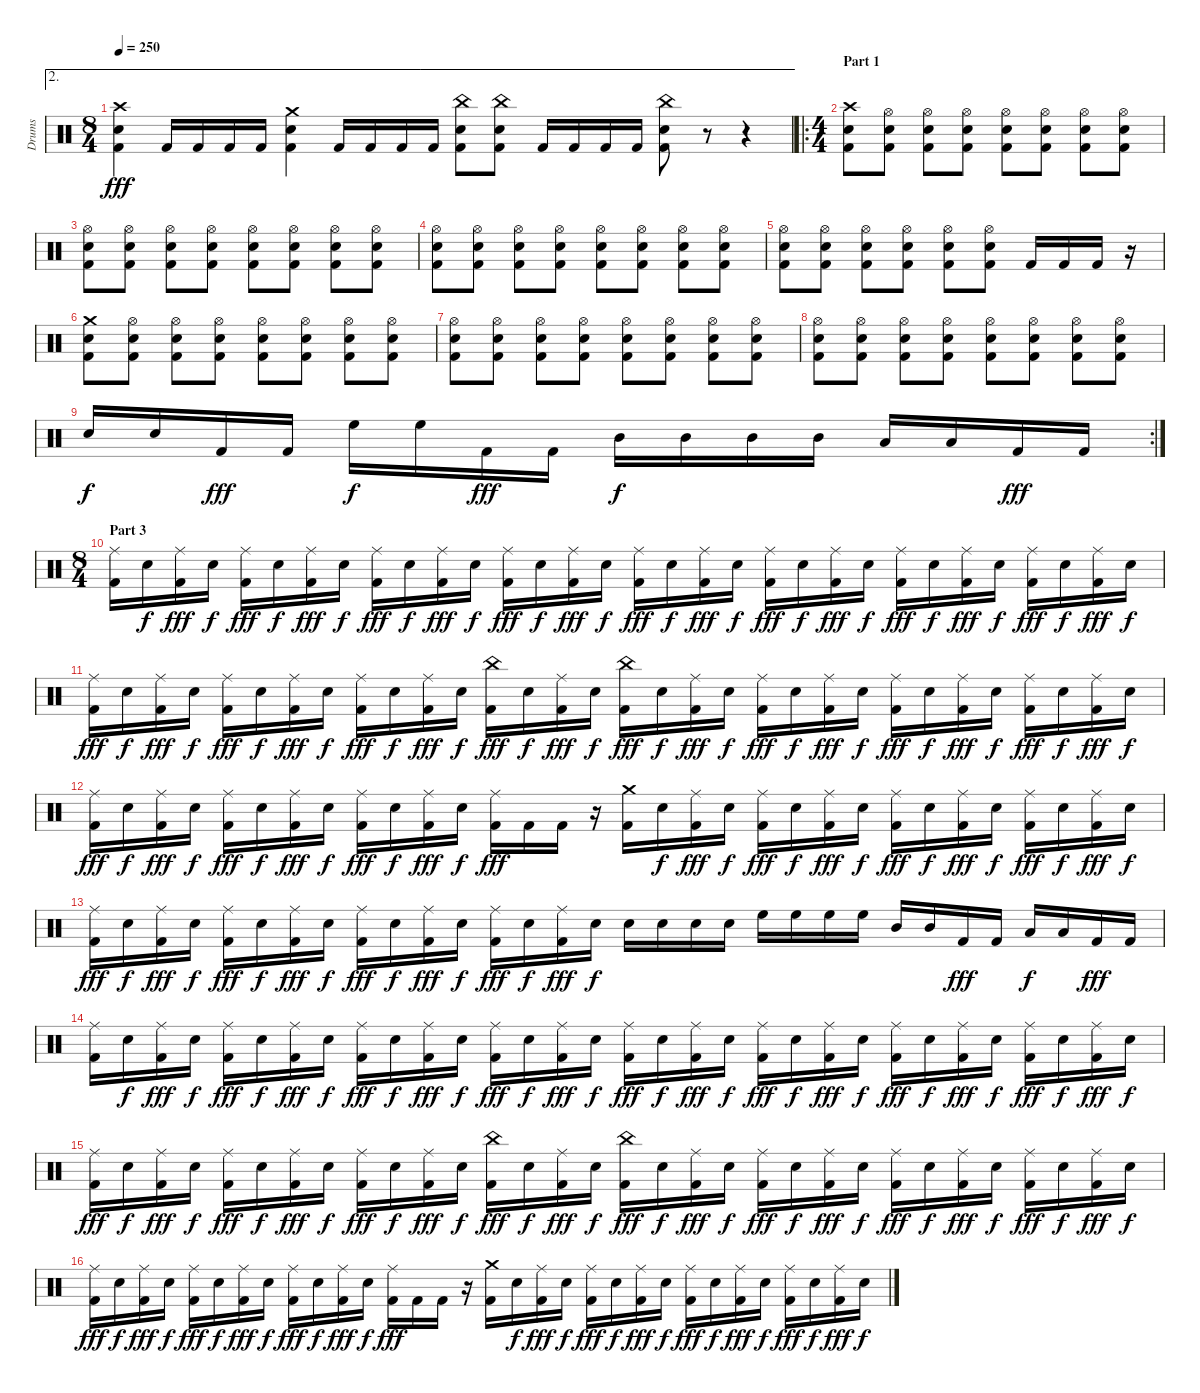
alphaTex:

\track ("Drums" "Drums") {instrument percussion}
\staff {score}
\articulation defaults
\ae 2
\ts (8 4)
\tempo 250
\clef neutral
\ks c
("Crash high (hit)" "Electric Snare (hit)" "Kick (hit) 2").4{dy fff} "Kick (hit) 2".16 "Kick (hit) 2".16 "Kick (hit) 2".16 "Kick (hit) 2".16 ("Crash medium (hit)" "Electric Snare (hit)" "Kick (hit) 2").4 "Kick (hit) 2".16 "Kick (hit) 2".16 "Kick (hit) 2".16 "Kick (hit) 2".16 ("China (hit)" "Electric Snare (hit)" "Kick (hit) 2").8 ("China (hit)" "Electric Snare (hit)" "Kick (hit) 2").8 "Kick (hit) 2".16 "Kick (hit) 2".16 "Kick (hit) 2".16 "Kick (hit) 2".16 ("China (hit)" "Electric Snare (hit)" "Kick (hit) 2").8 r.8 r.4 |
\ro
\ts (4 4)
\section ("" "Part 1")
("Crash high (hit)" "Electric Snare (hit)" "Kick (hit) 2").8 ("Hi-Hat (open)" "Electric Snare (hit)" "Kick (hit) 2").8 ("Hi-Hat (open)" "Electric Snare (hit)" "Kick (hit) 2").8 ("Hi-Hat (open)" "Electric Snare (hit)" "Kick (hit) 2").8 ("Hi-Hat (open)" "Electric Snare (hit)" "Kick (hit) 2").8 ("Hi-Hat (open)" "Electric Snare (hit)" "Kick (hit) 2").8 ("Hi-Hat (open)" "Electric Snare (hit)" "Kick (hit) 2").8 ("Hi-Hat (open)" "Electric Snare (hit)" "Kick (hit) 2").8 |
("Hi-Hat (open)" "Electric Snare (hit)" "Kick (hit) 2").8 ("Hi-Hat (open)" "Electric Snare (hit)" "Kick (hit) 2").8 ("Hi-Hat (open)" "Electric Snare (hit)" "Kick (hit) 2").8 ("Hi-Hat (open)" "Electric Snare (hit)" "Kick (hit) 2").8 ("Hi-Hat (open)" "Electric Snare (hit)" "Kick (hit) 2").8 ("Hi-Hat (open)" "Electric Snare (hit)" "Kick (hit) 2").8 ("Hi-Hat (open)" "Electric Snare (hit)" "Kick (hit) 2").8 ("Hi-Hat (open)" "Electric Snare (hit)" "Kick (hit) 2").8 |
("Hi-Hat (open)" "Electric Snare (hit)" "Kick (hit) 2").8 ("Hi-Hat (open)" "Electric Snare (hit)" "Kick (hit) 2").8 ("Hi-Hat (open)" "Electric Snare (hit)" "Kick (hit) 2").8 ("Hi-Hat (open)" "Electric Snare (hit)" "Kick (hit) 2").8 ("Hi-Hat (open)" "Electric Snare (hit)" "Kick (hit) 2").8 ("Hi-Hat (open)" "Electric Snare (hit)" "Kick (hit) 2").8 ("Hi-Hat (open)" "Electric Snare (hit)" "Kick (hit) 2").8 ("Hi-Hat (open)" "Electric Snare (hit)" "Kick (hit) 2").8 |
("Hi-Hat (open)" "Electric Snare (hit)" "Kick (hit) 2").8 ("Hi-Hat (open)" "Electric Snare (hit)" "Kick (hit) 2").8 ("Hi-Hat (open)" "Electric Snare (hit)" "Kick (hit) 2").8 ("Hi-Hat (open)" "Electric Snare (hit)" "Kick (hit) 2").8 ("Hi-Hat (open)" "Electric Snare (hit)" "Kick (hit) 2").8 ("Hi-Hat (open)" "Electric Snare (hit)" "Kick (hit) 2").8 "Kick (hit) 2".16 "Kick (hit) 2".16 "Kick (hit) 2".16 r.16 |
("Crash medium (hit)" "Electric Snare (hit)" "Kick (hit) 2").8 ("Hi-Hat (open)" "Electric Snare (hit)" "Kick (hit) 2").8 ("Hi-Hat (open)" "Electric Snare (hit)" "Kick (hit) 2").8 ("Hi-Hat (open)" "Electric Snare (hit)" "Kick (hit) 2").8 ("Hi-Hat (open)" "Electric Snare (hit)" "Kick (hit) 2").8 ("Hi-Hat (open)" "Electric Snare (hit)" "Kick (hit) 2").8 ("Hi-Hat (open)" "Electric Snare (hit)" "Kick (hit) 2").8 ("Hi-Hat (open)" "Electric Snare (hit)" "Kick (hit) 2").8 |
("Hi-Hat (open)" "Electric Snare (hit)" "Kick (hit) 2").8 ("Hi-Hat (open)" "Electric Snare (hit)" "Kick (hit) 2").8 ("Hi-Hat (open)" "Electric Snare (hit)" "Kick (hit) 2").8 ("Hi-Hat (open)" "Electric Snare (hit)" "Kick (hit) 2").8 ("Hi-Hat (open)" "Electric Snare (hit)" "Kick (hit) 2").8 ("Hi-Hat (open)" "Electric Snare (hit)" "Kick (hit) 2").8 ("Hi-Hat (open)" "Electric Snare (hit)" "Kick (hit) 2").8 ("Hi-Hat (open)" "Electric Snare (hit)" "Kick (hit) 2").8 |
("Hi-Hat (open)" "Electric Snare (hit)" "Kick (hit) 2").8 ("Hi-Hat (open)" "Electric Snare (hit)" "Kick (hit) 2").8 ("Hi-Hat (open)" "Electric Snare (hit)" "Kick (hit) 2").8 ("Hi-Hat (open)" "Electric Snare (hit)" "Kick (hit) 2").8 ("Hi-Hat (open)" "Electric Snare (hit)" "Kick (hit) 2").8 ("Hi-Hat (open)" "Electric Snare (hit)" "Kick (hit) 2").8 ("Hi-Hat (open)" "Electric Snare (hit)" "Kick (hit) 2").8 ("Hi-Hat (open)" "Electric Snare (hit)" "Kick (hit) 2").8 |
\rc 2 "Electric Snare (hit)".16{dy f} "Electric Snare (hit)".16 "Kick (hit) 2".16{dy fff} "Kick (hit) 2".16 "High Floor Tom (hit)".16{dy f} "High Floor Tom (hit)".16 "Kick (hit) 2".16{dy fff} "Kick (hit) 2".16 "Mid Tom (hit)".16{dy f} "Mid Tom (hit)".16 "Mid Tom (hit)".16 "Mid Tom (hit)".16 "Low Tom (hit)".16 "Low Tom (hit)".16 "Kick (hit) 2".16{dy fff} "Kick (hit) 2".16
|
\ts (8 4)
\section ("" "Part 3")
("Ride (middle)" "Kick (hit) 2").16 "Electric Snare (hit)".16{dy f} ("Ride (middle)" "Kick (hit) 2").16{dy fff} "Electric Snare (hit)".16{dy f} ("Ride (middle)" "Kick (hit) 2").16{dy fff} "Electric Snare (hit)".16{dy f} ("Ride (middle)" "Kick (hit) 2").16{dy fff} "Electric Snare (hit)".16{dy f} ("Ride (middle)" "Kick (hit) 2").16{dy fff} "Electric Snare (hit)".16{dy f} ("Ride (middle)" "Kick (hit) 2").16{dy fff} "Electric Snare (hit)".16{dy f} ("Ride (middle)" "Kick (hit) 2").16{dy fff} "Electric Snare (hit)".16{dy f} ("Ride (middle)" "Kick (hit) 2").16{dy fff} "Electric Snare (hit)".16{dy f} ("Ride (middle)" "Kick (hit) 2").16{dy fff} "Electric Snare (hit)".16{dy f} ("Ride (middle)" "Kick (hit) 2").16{dy fff} "Electric Snare (hit)".16{dy f} ("Ride (middle)" "Kick (hit) 2").16{dy fff} "Electric Snare (hit)".16{dy f} ("Ride (middle)" "Kick (hit) 2").16{dy fff} "Electric Snare (hit)".16{dy f} ("Ride (middle)" "Kick (hit) 2").16{dy fff} "Electric Snare (hit)".16{dy f} ("Ride (middle)" "Kick (hit) 2").16{dy fff} "Electric Snare (hit)".16{dy f} ("Ride (middle)" "Kick (hit) 2").16{dy fff} "Electric Snare (hit)".16{dy f} ("Ride (middle)" "Kick (hit) 2").16{dy fff} "Electric Snare (hit)".16{dy f} |
("Ride (middle)" "Kick (hit) 2").16{dy fff} "Electric Snare (hit)".16{dy f} ("Ride (middle)" "Kick (hit) 2").16{dy fff} "Electric Snare (hit)".16{dy f} ("Ride (middle)" "Kick (hit) 2").16{dy fff} "Electric Snare (hit)".16{dy f} ("Ride (middle)" "Kick (hit) 2").16{dy fff} "Electric Snare (hit)".16{dy f} ("Ride (middle)" "Kick (hit) 2").16{dy fff} "Electric Snare (hit)".16{dy f} ("Ride (middle)" "Kick (hit) 2").16{dy fff} "Electric Snare (hit)".16{dy f} ("China (hit)" "Kick (hit) 2").16{dy fff} "Electric Snare (hit)".16{dy f} ("Ride (middle)" "Kick (hit) 2").16{dy fff} "Electric Snare (hit)".16{dy f} ("China (hit)" "Kick (hit) 2").16{dy fff} "Electric Snare (hit)".16{dy f} ("Ride (middle)" "Kick (hit) 2").16{dy fff} "Electric Snare (hit)".16{dy f} ("Ride (middle)" "Kick (hit) 2").16{dy fff} "Electric Snare (hit)".16{dy f} ("Ride (middle)" "Kick (hit) 2").16{dy fff} "Electric Snare (hit)".16{dy f} ("Ride (middle)" "Kick (hit) 2").16{dy fff} "Electric Snare (hit)".16{dy f} ("Ride (middle)" "Kick (hit) 2").16{dy fff} "Electric Snare (hit)".16{dy f} ("Ride (middle)" "Kick (hit) 2").16{dy fff} "Electric Snare (hit)".16{dy f} ("Ride (middle)" "Kick (hit) 2").16{dy fff} "Electric Snare (hit)".16{dy f} |
("Ride (middle)" "Kick (hit) 2").16{dy fff} "Electric Snare (hit)".16{dy f} ("Ride (middle)" "Kick (hit) 2").16{dy fff} "Electric Snare (hit)".16{dy f} ("Ride (middle)" "Kick (hit) 2").16{dy fff} "Electric Snare (hit)".16{dy f} ("Ride (middle)" "Kick (hit) 2").16{dy fff} "Electric Snare (hit)".16{dy f} ("Ride (middle)" "Kick (hit) 2").16{dy fff} "Electric Snare (hit)".16{dy f} ("Ride (middle)" "Kick (hit) 2").16{dy fff} "Electric Snare (hit)".16{dy f} ("Ride (middle)" "Kick (hit) 2").16{dy fff} "Kick (hit) 2".16 "Kick (hit) 2".16 r.16 ("Crash medium (hit)" "Kick (hit) 2").16 "Electric Snare (hit)".16{dy f} ("Ride (middle)" "Kick (hit) 2").16{dy fff} "Electric Snare (hit)".16{dy f} ("Ride (middle)" "Kick (hit) 2").16{dy fff} "Electric Snare (hit)".16{dy f} ("Ride (middle)" "Kick (hit) 2").16{dy fff} "Electric Snare (hit)".16{dy f} ("Ride (middle)" "Kick (hit) 2").16{dy fff} "Electric Snare (hit)".16{dy f} ("Ride (middle)" "Kick (hit) 2").16{dy fff} "Electric Snare (hit)".16{dy f} ("Ride (middle)" "Kick (hit) 2").16{dy fff} "Electric Snare (hit)".16{dy f} ("Ride (middle)" "Kick (hit) 2").16{dy fff} "Electric Snare (hit)".16{dy f} |
("Ride (middle)" "Kick (hit) 2").16{dy fff} "Electric Snare (hit)".16{dy f} ("Ride (middle)" "Kick (hit) 2").16{dy fff} "Electric Snare (hit)".16{dy f} ("Ride (middle)" "Kick (hit) 2").16{dy fff} "Electric Snare (hit)".16{dy f} ("Ride (middle)" "Kick (hit) 2").16{dy fff} "Electric Snare (hit)".16{dy f} ("Ride (middle)" "Kick (hit) 2").16{dy fff} "Electric Snare (hit)".16{dy f} ("Ride (middle)" "Kick (hit) 2").16{dy fff} "Electric Snare (hit)".16{dy f} ("Ride (middle)" "Kick (hit) 2").16{dy fff} "Electric Snare (hit)".16{dy f} ("Ride (middle)" "Kick (hit) 2").16{dy fff} "Electric Snare (hit)".16{dy f} "Electric Snare (hit)".16 "Electric Snare (hit)".16 "Electric Snare (hit)".16 "Electric Snare (hit)".16 "High Floor Tom (hit)".16 "High Floor Tom (hit)".16 "High Floor Tom (hit)".16 "High Floor Tom (hit)".16 "Mid Tom (hit)".16 "Mid Tom (hit)".16 "Kick (hit) 2".16{dy fff} "Kick (hit) 2".16 "Low Tom (hit)".16{dy f} "Low Tom (hit)".16 "Kick (hit) 2".16{dy fff} "Kick (hit) 2".16 |
("Ride (middle)" "Kick (hit) 2").16 "Electric Snare (hit)".16{dy f} ("Ride (middle)" "Kick (hit) 2").16{dy fff} "Electric Snare (hit)".16{dy f} ("Ride (middle)" "Kick (hit) 2").16{dy fff} "Electric Snare (hit)".16{dy f} ("Ride (middle)" "Kick (hit) 2").16{dy fff} "Electric Snare (hit)".16{dy f} ("Ride (middle)" "Kick (hit) 2").16{dy fff} "Electric Snare (hit)".16{dy f} ("Ride (middle)" "Kick (hit) 2").16{dy fff} "Electric Snare (hit)".16{dy f} ("Ride (middle)" "Kick (hit) 2").16{dy fff} "Electric Snare (hit)".16{dy f} ("Ride (middle)" "Kick (hit) 2").16{dy fff} "Electric Snare (hit)".16{dy f} ("Ride (middle)" "Kick (hit) 2").16{dy fff} "Electric Snare (hit)".16{dy f} ("Ride (middle)" "Kick (hit) 2").16{dy fff} "Electric Snare (hit)".16{dy f} ("Ride (middle)" "Kick (hit) 2").16{dy fff} "Electric Snare (hit)".16{dy f} ("Ride (middle)" "Kick (hit) 2").16{dy fff} "Electric Snare (hit)".16{dy f} ("Ride (middle)" "Kick (hit) 2").16{dy fff} "Electric Snare (hit)".16{dy f} ("Ride (middle)" "Kick (hit) 2").16{dy fff} "Electric Snare (hit)".16{dy f} ("Ride (middle)" "Kick (hit) 2").16{dy fff} "Electric Snare (hit)".16{dy f} ("Ride (middle)" "Kick (hit) 2").16{dy fff} "Electric Snare (hit)".16{dy f} |
("Ride (middle)" "Kick (hit) 2").16{dy fff} "Electric Snare (hit)".16{dy f} ("Ride (middle)" "Kick (hit) 2").16{dy fff} "Electric Snare (hit)".16{dy f} ("Ride (middle)" "Kick (hit) 2").16{dy fff} "Electric Snare (hit)".16{dy f} ("Ride (middle)" "Kick (hit) 2").16{dy fff} "Electric Snare (hit)".16{dy f} ("Ride (middle)" "Kick (hit) 2").16{dy fff} "Electric Snare (hit)".16{dy f} ("Ride (middle)" "Kick (hit) 2").16{dy fff} "Electric Snare (hit)".16{dy f} ("China (hit)" "Kick (hit) 2").16{dy fff} "Electric Snare (hit)".16{dy f} ("Ride (middle)" "Kick (hit) 2").16{dy fff} "Electric Snare (hit)".16{dy f} ("China (hit)" "Kick (hit) 2").16{dy fff} "Electric Snare (hit)".16{dy f} ("Ride (middle)" "Kick (hit) 2").16{dy fff} "Electric Snare (hit)".16{dy f} ("Ride (middle)" "Kick (hit) 2").16{dy fff} "Electric Snare (hit)".16{dy f} ("Ride (middle)" "Kick (hit) 2").16{dy fff} "Electric Snare (hit)".16{dy f} ("Ride (middle)" "Kick (hit) 2").16{dy fff} "Electric Snare (hit)".16{dy f} ("Ride (middle)" "Kick (hit) 2").16{dy fff} "Electric Snare (hit)".16{dy f} ("Ride (middle)" "Kick (hit) 2").16{dy fff} "Electric Snare (hit)".16{dy f} ("Ride (middle)" "Kick (hit) 2").16{dy fff} "Electric Snare (hit)".16{dy f} |
("Ride (middle)" "Kick (hit) 2").16{dy fff} "Electric Snare (hit)".16{dy f} ("Ride (middle)" "Kick (hit) 2").16{dy fff} "Electric Snare (hit)".16{dy f} ("Ride (middle)" "Kick (hit) 2").16{dy fff} "Electric Snare (hit)".16{dy f} ("Ride (middle)" "Kick (hit) 2").16{dy fff} "Electric Snare (hit)".16{dy f} ("Ride (middle)" "Kick (hit) 2").16{dy fff} "Electric Snare (hit)".16{dy f} ("Ride (middle)" "Kick (hit) 2").16{dy fff} "Electric Snare (hit)".16{dy f} ("Ride (middle)" "Kick (hit) 2").16{dy fff} "Kick (hit) 2".16 "Kick (hit) 2".16 r.16 ("Crash medium (hit)" "Kick (hit) 2").16 "Electric Snare (hit)".16{dy f} ("Ride (middle)" "Kick (hit) 2").16{dy fff} "Electric Snare (hit)".16{dy f} ("Ride (middle)" "Kick (hit) 2").16{dy fff} "Electric Snare (hit)".16{dy f} ("Ride (middle)" "Kick (hit) 2").16{dy fff} "Electric Snare (hit)".16{dy f} ("Ride (middle)" "Kick (hit) 2").16{dy fff} "Electric Snare (hit)".16{dy f} ("Ride (middle)" "Kick (hit) 2").16{dy fff} "Electric Snare (hit)".16{dy f} ("Ride (middle)" "Kick (hit) 2").16{dy fff} "Electric Snare (hit)".16{dy f} ("Ride (middle)" "Kick (hit) 2").16{dy fff} "Electric Snare (hit)".16{dy f}
